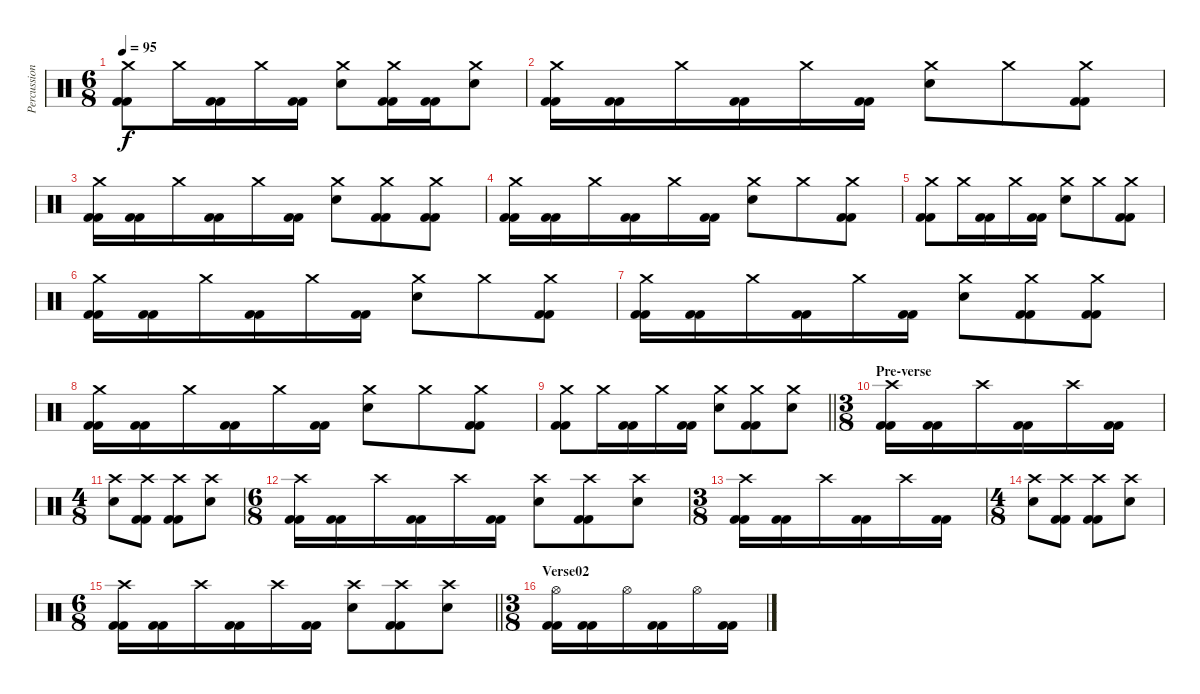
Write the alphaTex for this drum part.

\track ("Percussion" "Percussion") {instrument percussion}
\staff {score}
\articulation defaults
\ts (6 8)
\tempo 95
\clef neutral
\ks c
("Crash medium (hit)" "Kick (hit) 2" "Kick (hit) 2").8{dy f} "Crash medium (hit)".16 ("Kick (hit) 2" "Kick (hit) 2").16 "Crash medium (hit)".16 ("Kick (hit) 2" "Kick (hit) 2").16 ("Crash medium (hit)" "Electric Snare (hit)").8 ("Crash medium (hit)" "Kick (hit) 2" "Kick (hit) 2").16 ("Kick (hit) 2" "Kick (hit) 2").16 ("Crash medium (hit)" "Electric Snare (hit)").8 |
("Crash medium (hit)" "Kick (hit) 2" "Kick (hit) 2").16 ("Kick (hit) 2" "Kick (hit) 2").16 "Crash medium (hit)".16 ("Kick (hit) 2" "Kick (hit) 2").16 "Crash medium (hit)".16 ("Kick (hit) 2" "Kick (hit) 2").16 ("Crash medium (hit)" "Electric Snare (hit)").8 "Crash medium (hit)".8 ("Crash medium (hit)" "Kick (hit) 2" "Kick (hit) 2").8 |
("Crash medium (hit)" "Kick (hit) 2" "Kick (hit) 2").16 ("Kick (hit) 2" "Kick (hit) 2").16 "Crash medium (hit)".16 ("Kick (hit) 2" "Kick (hit) 2").16 "Crash medium (hit)".16 ("Kick (hit) 2" "Kick (hit) 2").16 ("Crash medium (hit)" "Electric Snare (hit)").8 ("Crash medium (hit)" "Kick (hit) 2" "Kick (hit) 2").8 ("Crash medium (hit)" "Kick (hit) 2" "Kick (hit) 2").8 |
("Crash medium (hit)" "Kick (hit) 2" "Kick (hit) 2").16 ("Kick (hit) 2" "Kick (hit) 2").16 "Crash medium (hit)".16 ("Kick (hit) 2" "Kick (hit) 2").16 "Crash medium (hit)".16 ("Kick (hit) 2" "Kick (hit) 2").16 ("Crash medium (hit)" "Electric Snare (hit)").8 "Crash medium (hit)".8 ("Crash medium (hit)" "Kick (hit) 2" "Kick (hit) 2").8 |
("Crash medium (hit)" "Kick (hit) 2" "Kick (hit) 2").8 "Crash medium (hit)".16 ("Kick (hit) 2" "Kick (hit) 2").16 "Crash medium (hit)".16 ("Kick (hit) 2" "Kick (hit) 2").16 ("Crash medium (hit)" "Electric Snare (hit)").8 "Crash medium (hit)".8 ("Crash medium (hit)" "Kick (hit) 2" "Kick (hit) 2").8 |
("Crash medium (hit)" "Kick (hit) 2" "Kick (hit) 2").16 ("Kick (hit) 2" "Kick (hit) 2").16 "Crash medium (hit)".16 ("Kick (hit) 2" "Kick (hit) 2").16 "Crash medium (hit)".16 ("Kick (hit) 2" "Kick (hit) 2").16 ("Crash medium (hit)" "Electric Snare (hit)").8 "Crash medium (hit)".8 ("Crash medium (hit)" "Kick (hit) 2" "Kick (hit) 2").8 |
("Crash medium (hit)" "Kick (hit) 2" "Kick (hit) 2").16 ("Kick (hit) 2" "Kick (hit) 2").16 "Crash medium (hit)".16 ("Kick (hit) 2" "Kick (hit) 2").16 "Crash medium (hit)".16 ("Kick (hit) 2" "Kick (hit) 2").16 ("Crash medium (hit)" "Electric Snare (hit)").8 ("Crash medium (hit)" "Kick (hit) 2" "Kick (hit) 2").8 ("Crash medium (hit)" "Kick (hit) 2" "Kick (hit) 2").8 |
("Crash medium (hit)" "Kick (hit) 2" "Kick (hit) 2").16 ("Kick (hit) 2" "Kick (hit) 2").16 "Crash medium (hit)".16 ("Kick (hit) 2" "Kick (hit) 2").16 "Crash medium (hit)".16 ("Kick (hit) 2" "Kick (hit) 2").16 ("Crash medium (hit)" "Electric Snare (hit)").8 "Crash medium (hit)".8 ("Crash medium (hit)" "Kick (hit) 2" "Kick (hit) 2").8 |
\barLineRight lightlight
("Crash medium (hit)" "Kick (hit) 2" "Kick (hit) 2").8 "Crash medium (hit)".16 ("Kick (hit) 2" "Kick (hit) 2").16 "Crash medium (hit)".16 ("Kick (hit) 2" "Kick (hit) 2").16 ("Crash medium (hit)" "Electric Snare (hit)").8 ("Crash medium (hit)" "Kick (hit) 2" "Kick (hit) 2").8 ("Crash medium (hit)" "Electric Snare (hit)").8 |
\ts (3 8)
\section ("" "Pre-verse")
("Crash high (hit)" "Kick (hit) 2" "Kick (hit) 2").16 ("Kick (hit) 2" "Kick (hit) 2").16 "Crash high (hit)".16 ("Kick (hit) 2" "Kick (hit) 2").16 "Crash high (hit)".16 ("Kick (hit) 2" "Kick (hit) 2").16 |
\ts (4 8)
("Crash high (hit)" "Electric Snare (hit)").8 ("Crash high (hit)" "Kick (hit) 2" "Kick (hit) 2").8 ("Crash high (hit)" "Kick (hit) 2" "Kick (hit) 2").8 ("Crash high (hit)" "Electric Snare (hit)").8 |
\ts (6 8)
("Crash high (hit)" "Kick (hit) 2" "Kick (hit) 2").16 ("Kick (hit) 2" "Kick (hit) 2").16 "Crash high (hit)".16 ("Kick (hit) 2" "Kick (hit) 2").16 "Crash high (hit)".16 ("Kick (hit) 2" "Kick (hit) 2").16 ("Crash high (hit)" "Electric Snare (hit)").8 ("Crash high (hit)" "Kick (hit) 2" "Kick (hit) 2").8 ("Crash high (hit)" "Electric Snare (hit)").8 |
\ts (3 8)
("Crash high (hit)" "Kick (hit) 2" "Kick (hit) 2").16 ("Kick (hit) 2" "Kick (hit) 2").16 "Crash high (hit)".16 ("Kick (hit) 2" "Kick (hit) 2").16 "Crash high (hit)".16 ("Kick (hit) 2" "Kick (hit) 2").16 |
\ts (4 8)
("Crash high (hit)" "Electric Snare (hit)").8 ("Crash high (hit)" "Kick (hit) 2" "Kick (hit) 2").8 ("Crash high (hit)" "Kick (hit) 2" "Kick (hit) 2").8 ("Crash high (hit)" "Electric Snare (hit)").8 |
\ts (6 8)
\barLineRight lightlight
("Crash high (hit)" "Kick (hit) 2" "Kick (hit) 2").16 ("Kick (hit) 2" "Kick (hit) 2").16 "Crash high (hit)".16 ("Kick (hit) 2" "Kick (hit) 2").16 "Crash high (hit)".16 ("Kick (hit) 2" "Kick (hit) 2").16 ("Crash high (hit)" "Electric Snare (hit)").8 ("Crash high (hit)" "Kick (hit) 2" "Kick (hit) 2").8 ("Crash high (hit)" "Electric Snare (hit)").8 |
\ts (3 8)
\section ("" "Verse02")
("Hi-Hat (open)" "Kick (hit) 2" "Kick (hit) 2").16 ("Kick (hit) 2" "Kick (hit) 2").16 "Hi-Hat (open)".16 ("Kick (hit) 2" "Kick (hit) 2").16 "Hi-Hat (open)".16 ("Kick (hit) 2" "Kick (hit) 2").16
